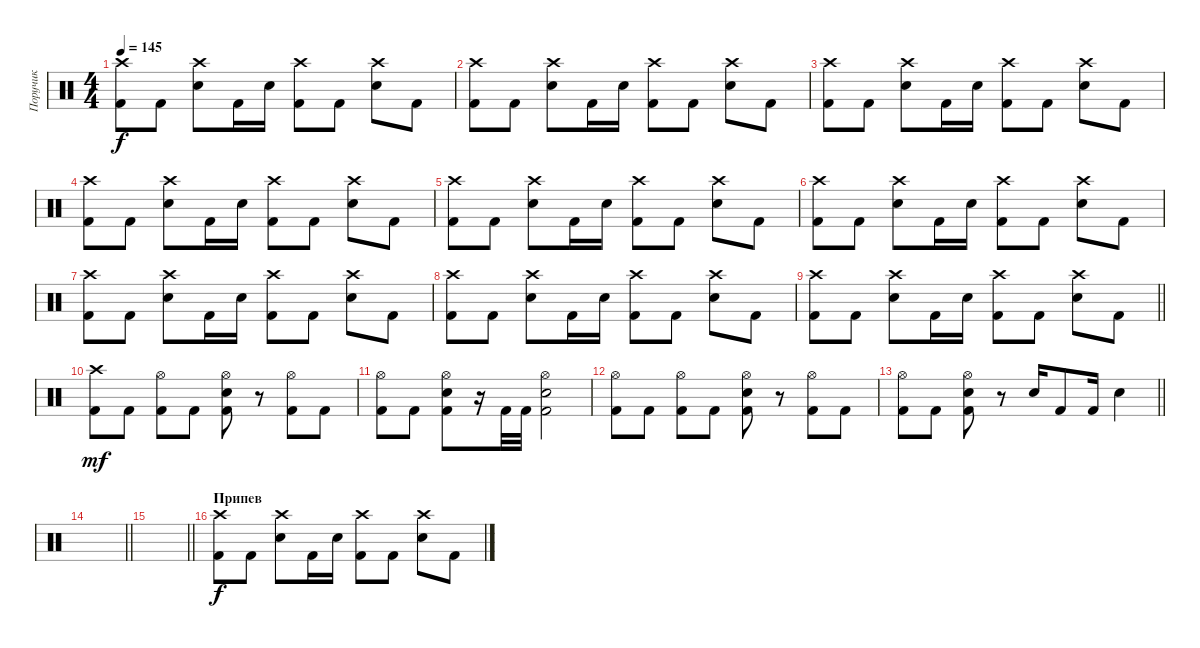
\track ("Поручик" "Поручик") {instrument percussion}
\staff {score}
\articulation defaults
\ts (4 4)
\tempo 145
\clef neutral
\ks c
("Crash high (hit)" "Kick (hit) 2").8{dy f} "Kick (hit) 2".8 ("Crash high (hit)" "Electric Snare (hit)").8 "Kick (hit) 2".16 "Electric Snare (hit)".16 ("Crash high (hit)" "Kick (hit) 2").8 "Kick (hit) 2".8 ("Crash high (hit)" "Electric Snare (hit)").8 "Kick (hit) 2".8 |
("Crash high (hit)" "Kick (hit) 2").8 "Kick (hit) 2".8 ("Crash high (hit)" "Electric Snare (hit)").8 "Kick (hit) 2".16 "Electric Snare (hit)".16 ("Crash high (hit)" "Kick (hit) 2").8 "Kick (hit) 2".8 ("Crash high (hit)" "Electric Snare (hit)").8 "Kick (hit) 2".8 |
("Crash high (hit)" "Kick (hit) 2").8 "Kick (hit) 2".8 ("Crash high (hit)" "Electric Snare (hit)").8 "Kick (hit) 2".16 "Electric Snare (hit)".16 ("Crash high (hit)" "Kick (hit) 2").8 "Kick (hit) 2".8 ("Crash high (hit)" "Electric Snare (hit)").8 "Kick (hit) 2".8 |
("Crash high (hit)" "Kick (hit) 2").8 "Kick (hit) 2".8 ("Crash high (hit)" "Electric Snare (hit)").8 "Kick (hit) 2".16 "Electric Snare (hit)".16 ("Crash high (hit)" "Kick (hit) 2").8 "Kick (hit) 2".8 ("Crash high (hit)" "Electric Snare (hit)").8 "Kick (hit) 2".8 |
("Crash high (hit)" "Kick (hit) 2").8 "Kick (hit) 2".8 ("Crash high (hit)" "Electric Snare (hit)").8 "Kick (hit) 2".16 "Electric Snare (hit)".16 ("Crash high (hit)" "Kick (hit) 2").8 "Kick (hit) 2".8 ("Crash high (hit)" "Electric Snare (hit)").8 "Kick (hit) 2".8 |
("Crash high (hit)" "Kick (hit) 2").8 "Kick (hit) 2".8 ("Crash high (hit)" "Electric Snare (hit)").8 "Kick (hit) 2".16 "Electric Snare (hit)".16 ("Crash high (hit)" "Kick (hit) 2").8 "Kick (hit) 2".8 ("Crash high (hit)" "Electric Snare (hit)").8 "Kick (hit) 2".8 |
("Crash high (hit)" "Kick (hit) 2").8 "Kick (hit) 2".8 ("Crash high (hit)" "Electric Snare (hit)").8 "Kick (hit) 2".16 "Electric Snare (hit)".16 ("Crash high (hit)" "Kick (hit) 2").8 "Kick (hit) 2".8 ("Crash high (hit)" "Electric Snare (hit)").8 "Kick (hit) 2".8 |
("Crash high (hit)" "Kick (hit) 2").8 "Kick (hit) 2".8 ("Crash high (hit)" "Electric Snare (hit)").8 "Kick (hit) 2".16 "Electric Snare (hit)".16 ("Crash high (hit)" "Kick (hit) 2").8 "Kick (hit) 2".8 ("Crash high (hit)" "Electric Snare (hit)").8 "Kick (hit) 2".8 |
\barLineRight lightlight
("Crash high (hit)" "Kick (hit) 2").8 "Kick (hit) 2".8 ("Crash high (hit)" "Electric Snare (hit)").8 "Kick (hit) 2".16 "Electric Snare (hit)".16 ("Crash high (hit)" "Kick (hit) 2").8 "Kick (hit) 2".8 ("Crash high (hit)" "Electric Snare (hit)").8 "Kick (hit) 2".8 |
("Crash high (hit)" "Kick (hit) 2").8{dy mf} "Kick (hit) 2".8 ("Hi-Hat (open)" "Kick (hit) 2").8 "Kick (hit) 2".8 ("Hi-Hat (open)" "Electric Snare (hit)" "Kick (hit) 2").8 r.8 ("Hi-Hat (open)" "Kick (hit) 2").8 "Kick (hit) 2".8 |
("Hi-Hat (open)" "Kick (hit) 2").8 "Kick (hit) 2".8 ("Hi-Hat (open)" "Electric Snare (hit)" "Kick (hit) 2").8 r.16 "Kick (hit) 2".32 "Kick (hit) 2".32 ("Hi-Hat (open)" "Electric Snare (hit)" "Kick (hit) 2").2 |
("Hi-Hat (open)" "Kick (hit) 2").8 "Kick (hit) 2".8 ("Hi-Hat (open)" "Kick (hit) 2").8 "Kick (hit) 2".8 ("Hi-Hat (open)" "Electric Snare (hit)" "Kick (hit) 2").8 r.8 ("Hi-Hat (open)" "Kick (hit) 2").8 "Kick (hit) 2".8 |
\barLineRight lightlight
("Hi-Hat (open)" "Kick (hit) 2").8 "Kick (hit) 2".8 ("Hi-Hat (open)" "Electric Snare (hit)" "Kick (hit) 2").8 r.8 "Electric Snare (hit)".16 "Kick (hit) 2".8 "Kick (hit) 2".16 "Electric Snare (hit)".4 |
\barLineRight lightlight
|
\barLineRight lightlight
|
\section ("" "Припев")
("Crash high (hit)" "Kick (hit) 2").8{dy f} "Kick (hit) 2".8 ("Crash high (hit)" "Electric Snare (hit)").8 "Kick (hit) 2".16 "Electric Snare (hit)".16 ("Crash high (hit)" "Kick (hit) 2").8 "Kick (hit) 2".8 ("Crash high (hit)" "Electric Snare (hit)").8 "Kick (hit) 2".8
